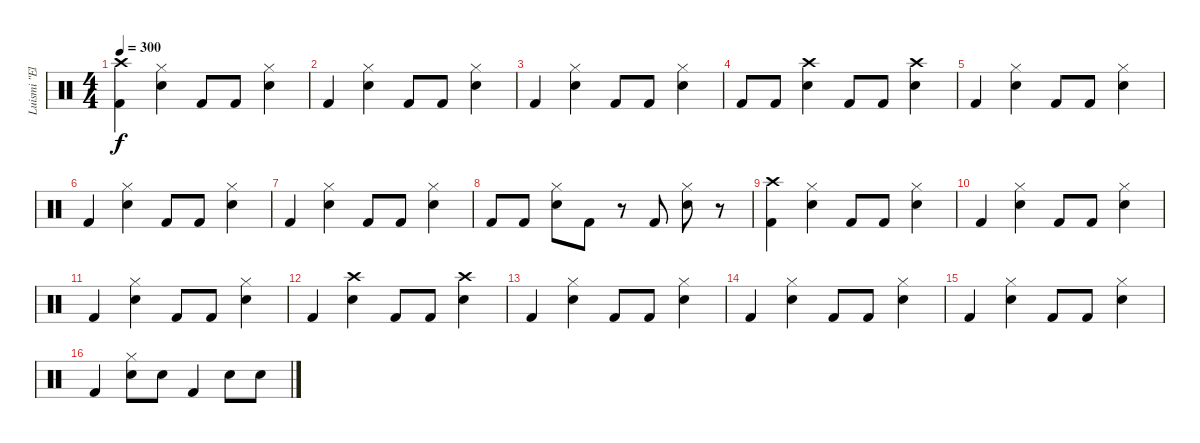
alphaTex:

\track ("Luismi \"El Papi\"" "Luismi \"El") {instrument percussion}
\staff {score}
\articulation defaults
\ts (4 4)
\tempo 300
\clef neutral
\ks c
("Crash high (hit)" "Kick (hit) 2").4{dy f} ("Hi-Hat (closed)" "Snare (hit) 2").4 "Kick (hit) 2".8 "Kick (hit) 2".8 ("Hi-Hat (closed)" "Snare (hit) 2").4 |
"Kick (hit) 2".4 ("Hi-Hat (closed)" "Snare (hit) 2").4 "Kick (hit) 2".8 "Kick (hit) 2".8 ("Hi-Hat (closed)" "Snare (hit) 2").4 |
"Kick (hit) 2".4 ("Hi-Hat (closed)" "Snare (hit) 2").4 "Kick (hit) 2".8 "Kick (hit) 2".8 ("Hi-Hat (closed)" "Snare (hit) 2").4 |
"Kick (hit) 2".8 "Kick (hit) 2".8 ("Crash high (hit)" "Snare (hit) 2").4 "Kick (hit) 2".8 "Kick (hit) 2".8 ("Crash high (hit)" "Snare (hit) 2").4 |
"Kick (hit) 2".4 ("Hi-Hat (closed)" "Snare (hit) 2").4 "Kick (hit) 2".8 "Kick (hit) 2".8 ("Hi-Hat (closed)" "Snare (hit) 2").4 |
"Kick (hit) 2".4 ("Hi-Hat (closed)" "Snare (hit) 2").4 "Kick (hit) 2".8 "Kick (hit) 2".8 ("Hi-Hat (closed)" "Snare (hit) 2").4 |
"Kick (hit) 2".4 ("Hi-Hat (closed)" "Snare (hit) 2").4 "Kick (hit) 2".8 "Kick (hit) 2".8 ("Hi-Hat (closed)" "Snare (hit) 2").4 |
"Kick (hit) 2".8 "Kick (hit) 2".8 ("Hi-Hat (closed)" "Snare (hit) 2").8 "Kick (hit) 2".8 r.8 "Kick (hit) 2".8 ("Hi-Hat (closed)" "Snare (hit) 2").8 r.8 |
("Crash high (hit)" "Kick (hit) 2").4 ("Hi-Hat (closed)" "Snare (hit) 2").4 "Kick (hit) 2".8 "Kick (hit) 2".8 ("Hi-Hat (closed)" "Snare (hit) 2").4 |
"Kick (hit) 2".4 ("Hi-Hat (closed)" "Snare (hit) 2").4 "Kick (hit) 2".8 "Kick (hit) 2".8 ("Hi-Hat (closed)" "Snare (hit) 2").4 |
"Kick (hit) 2".4 ("Hi-Hat (closed)" "Snare (hit) 2").4 "Kick (hit) 2".8 "Kick (hit) 2".8 ("Hi-Hat (closed)" "Snare (hit) 2").4 |
"Kick (hit) 2".4 ("Crash high (hit)" "Snare (hit) 2").4 "Kick (hit) 2".8 "Kick (hit) 2".8 ("Crash high (hit)" "Snare (hit) 2").4 |
"Kick (hit) 2".4 ("Hi-Hat (closed)" "Snare (hit) 2").4 "Kick (hit) 2".8 "Kick (hit) 2".8 ("Hi-Hat (closed)" "Snare (hit) 2").4 |
"Kick (hit) 2".4 ("Hi-Hat (closed)" "Snare (hit) 2").4 "Kick (hit) 2".8 "Kick (hit) 2".8 ("Hi-Hat (closed)" "Snare (hit) 2").4 |
"Kick (hit) 2".4 ("Hi-Hat (closed)" "Snare (hit) 2").4 "Kick (hit) 2".8 "Kick (hit) 2".8 ("Hi-Hat (closed)" "Snare (hit) 2").4 |
"Kick (hit) 2".4 ("Hi-Hat (closed)" "Snare (hit) 2").8 "Snare (hit) 2".8 "Kick (hit) 2".4 "Snare (hit) 2".8 "Snare (hit) 2".8
